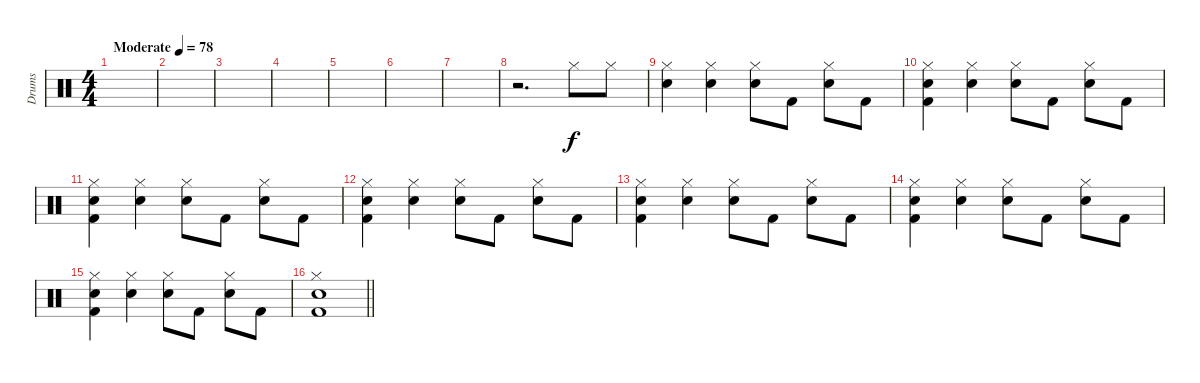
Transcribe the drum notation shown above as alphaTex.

\track ("Drums" "Drums") {instrument percussion}
\staff {score}
\articulation defaults
\ts (4 4)
\tempo (78 "Moderate")
\clef neutral
\ks c
|
|
|
|
|
|
|
r.2{d} "Hi-Hat (closed)".8 "Hi-Hat (closed)".8 |
("Hi-Hat (closed)" "Electric Snare (hit)").4 ("Hi-Hat (closed)" "Electric Snare (hit)").4 ("Hi-Hat (closed)" "Electric Snare (hit)").8 "Kick (hit) 2".8 ("Hi-Hat (closed)" "Electric Snare (hit)").8 "Kick (hit) 2".8 |
("Hi-Hat (closed)" "Electric Snare (hit)" "Kick (hit) 2").4 ("Hi-Hat (closed)" "Electric Snare (hit)").4 ("Hi-Hat (closed)" "Electric Snare (hit)").8 "Kick (hit) 2".8 ("Hi-Hat (closed)" "Electric Snare (hit)").8 "Kick (hit) 2".8 |
("Hi-Hat (closed)" "Electric Snare (hit)" "Kick (hit) 2").4 ("Hi-Hat (closed)" "Electric Snare (hit)").4 ("Hi-Hat (closed)" "Electric Snare (hit)").8 "Kick (hit) 2".8 ("Hi-Hat (closed)" "Electric Snare (hit)").8 "Kick (hit) 2".8 |
("Hi-Hat (closed)" "Electric Snare (hit)" "Kick (hit) 2").4 ("Hi-Hat (closed)" "Electric Snare (hit)").4 ("Hi-Hat (closed)" "Electric Snare (hit)").8 "Kick (hit) 2".8 ("Hi-Hat (closed)" "Electric Snare (hit)").8 "Kick (hit) 2".8 |
("Hi-Hat (closed)" "Electric Snare (hit)" "Kick (hit) 2").4 ("Hi-Hat (closed)" "Electric Snare (hit)").4 ("Hi-Hat (closed)" "Electric Snare (hit)").8 "Kick (hit) 2".8 ("Hi-Hat (closed)" "Electric Snare (hit)").8 "Kick (hit) 2".8 |
("Hi-Hat (closed)" "Electric Snare (hit)" "Kick (hit) 2").4 ("Hi-Hat (closed)" "Electric Snare (hit)").4 ("Hi-Hat (closed)" "Electric Snare (hit)").8 "Kick (hit) 2".8 ("Hi-Hat (closed)" "Electric Snare (hit)").8 "Kick (hit) 2".8 |
("Hi-Hat (closed)" "Electric Snare (hit)" "Kick (hit) 2").4 ("Hi-Hat (closed)" "Electric Snare (hit)").4 ("Hi-Hat (closed)" "Electric Snare (hit)").8 "Kick (hit) 2".8 ("Hi-Hat (closed)" "Electric Snare (hit)").8 "Kick (hit) 2".8 |
\barLineRight lightlight
("Hi-Hat (closed)" "Electric Snare (hit)" "Kick (hit) 2").1
